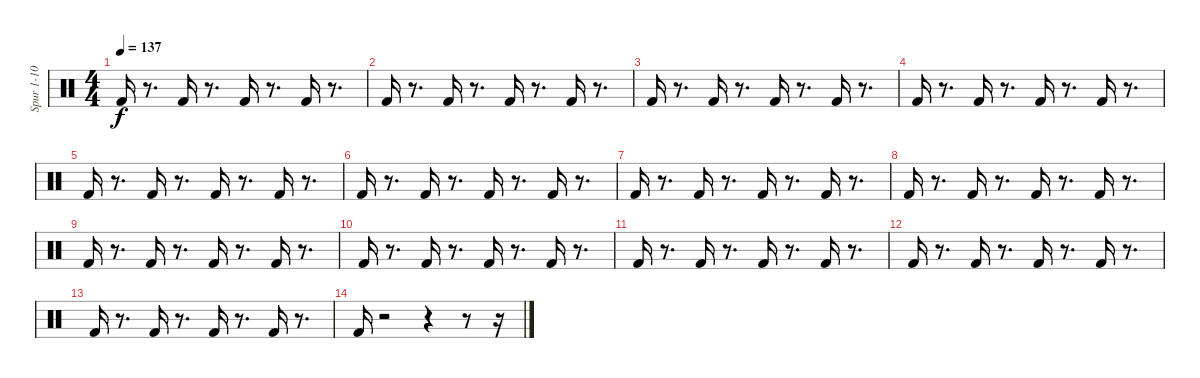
\track ("Spur 1-10" "Spur 1-10") {instrument percussion}
\staff {score}
\articulation defaults
\ts (4 4)
\tempo 137
\clef neutral
\ks c "Kick (hit) 2".16{dy f}
r.8{d} "Kick (hit) 2".16 r.8{d} "Kick (hit) 2".16 r.8{d} "Kick (hit) 2".16 r.8{d} |
"Kick (hit) 2".16 r.8{d} "Kick (hit) 2".16 r.8{d} "Kick (hit) 2".16 r.8{d} "Kick (hit) 2".16 r.8{d} |
"Kick (hit) 2".16 r.8{d} "Kick (hit) 2".16 r.8{d} "Kick (hit) 2".16 r.8{d} "Kick (hit) 2".16 r.8{d} |
"Kick (hit) 2".16 r.8{d} "Kick (hit) 2".16 r.8{d} "Kick (hit) 2".16 r.8{d} "Kick (hit) 2".16 r.8{d} |
"Kick (hit) 2".16 r.8{d} "Kick (hit) 2".16 r.8{d} "Kick (hit) 2".16 r.8{d} "Kick (hit) 2".16 r.8{d} |
"Kick (hit) 2".16 r.8{d} "Kick (hit) 2".16 r.8{d} "Kick (hit) 2".16 r.8{d} "Kick (hit) 2".16 r.8{d} |
"Kick (hit) 2".16 r.8{d} "Kick (hit) 2".16 r.8{d} "Kick (hit) 2".16 r.8{d} "Kick (hit) 2".16 r.8{d} |
"Kick (hit) 2".16 r.8{d} "Kick (hit) 2".16 r.8{d} "Kick (hit) 2".16 r.8{d} "Kick (hit) 2".16 r.8{d} |
"Kick (hit) 2".16 r.8{d} "Kick (hit) 2".16 r.8{d} "Kick (hit) 2".16 r.8{d} "Kick (hit) 2".16 r.8{d} |
"Kick (hit) 2".16 r.8{d} "Kick (hit) 2".16 r.8{d} "Kick (hit) 2".16 r.8{d} "Kick (hit) 2".16 r.8{d} |
"Kick (hit) 2".16 r.8{d} "Kick (hit) 2".16 r.8{d} "Kick (hit) 2".16 r.8{d} "Kick (hit) 2".16 r.8{d} |
"Kick (hit) 2".16 r.8{d} "Kick (hit) 2".16 r.8{d} "Kick (hit) 2".16 r.8{d} "Kick (hit) 2".16 r.8{d} |
"Kick (hit) 2".16 r.8{d} "Kick (hit) 2".16 r.8{d} "Kick (hit) 2".16 r.8{d} "Kick (hit) 2".16 r.8{d} |
"Kick (hit) 2".16 r.2 r.4 r.8 r.16
